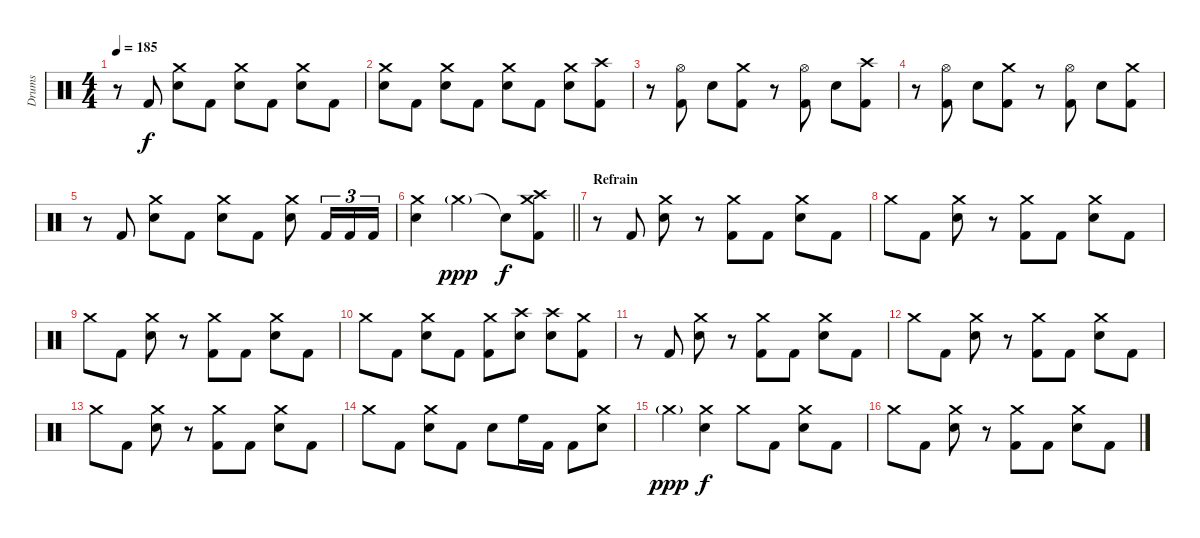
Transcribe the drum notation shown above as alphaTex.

\track ("Drums" "Drums") {instrument percussion}
\staff {score}
\articulation defaults
\ts (4 4)
\tempo 185
\clef neutral
\ks c
r.8{dy f} "Kick (hit) 2".8 ("Crash medium (hit)" "Electric Snare (hit)").8 "Kick (hit) 2".8 ("Crash medium (hit)" "Electric Snare (hit)").8 "Kick (hit) 2".8 ("Crash medium (hit)" "Electric Snare (hit)").8 "Kick (hit) 2".8 |
("Crash medium (hit)" "Electric Snare (hit)").8 "Kick (hit) 2".8 ("Crash medium (hit)" "Electric Snare (hit)").8 "Kick (hit) 2".8 ("Crash medium (hit)" "Electric Snare (hit)").8 "Kick (hit) 2".8 ("Crash medium (hit)" "Electric Snare (hit)").8 ("Crash high (hit)" "Kick (hit) 2").8 |
r.8 ("Hi-Hat (open)" "Kick (hit) 2").8 "Electric Snare (hit)".8 ("Crash medium (hit)" "Kick (hit) 2").8 r.8 ("Hi-Hat (open)" "Kick (hit) 2").8 "Electric Snare (hit)".8 ("Crash high (hit)" "Kick (hit) 2").8 |
r.8 ("Hi-Hat (open)" "Kick (hit) 2").8 "Electric Snare (hit)".8 ("Crash medium (hit)" "Kick (hit) 2").8 r.8 ("Hi-Hat (open)" "Kick (hit) 2").8 "Electric Snare (hit)".8 ("Crash medium (hit)" "Kick (hit) 2").8 |
r.8 "Kick (hit) 2".8 ("Crash medium (hit)" "Electric Snare (hit)").8 "Kick (hit) 2".8 ("Crash medium (hit)" "Electric Snare (hit)").8 "Kick (hit) 2".8 ("Crash medium (hit)" "Electric Snare (hit)").8 "Kick (hit) 2".16{tu (3 2)} "Kick (hit) 2".16{tu (3 2)} "Kick (hit) 2".16{tu (3 2)} |
\barLineRight lightlight
("Crash medium (hit)" "Electric Snare (hit)").4 "Crash medium (hit)"{g}.2{dy ppp} "Snare (hit)"{t}.8{dy f} ("Crash medium (hit)" "Crash high (hit)" "Kick (hit) 2").8 |
\section ("" "Refrain")
r.8 "Kick (hit) 2".8 ("Crash medium (hit)" "Electric Snare (hit)").8 r.8 ("Crash medium (hit)" "Kick (hit) 2").8 "Kick (hit) 2".8 ("Crash medium (hit)" "Electric Snare (hit)").8 "Kick (hit) 2".8 |
"Crash medium (hit)".8 "Kick (hit) 2".8 ("Crash medium (hit)" "Electric Snare (hit)").8 r.8 ("Crash medium (hit)" "Kick (hit) 2").8 "Kick (hit) 2".8 ("Crash medium (hit)" "Electric Snare (hit)").8 "Kick (hit) 2".8 |
"Crash medium (hit)".8 "Kick (hit) 2".8 ("Crash medium (hit)" "Electric Snare (hit)").8 r.8 ("Crash medium (hit)" "Kick (hit) 2").8 "Kick (hit) 2".8 ("Crash medium (hit)" "Electric Snare (hit)").8 "Kick (hit) 2".8 |
"Crash medium (hit)".8 "Kick (hit) 2".8 ("Crash medium (hit)" "Electric Snare (hit)").8 "Kick (hit) 2".8 ("Crash medium (hit)" "Kick (hit) 2").8 ("Crash high (hit)" "Electric Snare (hit)").8 ("Crash high (hit)" "Electric Snare (hit)").8 ("Crash medium (hit)" "Kick (hit) 2").8 |
r.8 "Kick (hit) 2".8 ("Crash medium (hit)" "Electric Snare (hit)").8 r.8 ("Crash medium (hit)" "Kick (hit) 2").8 "Kick (hit) 2".8 ("Crash medium (hit)" "Electric Snare (hit)").8 "Kick (hit) 2".8 |
"Crash medium (hit)".8 "Kick (hit) 2".8 ("Crash medium (hit)" "Electric Snare (hit)").8 r.8 ("Crash medium (hit)" "Kick (hit) 2").8 "Kick (hit) 2".8 ("Crash medium (hit)" "Electric Snare (hit)").8 "Kick (hit) 2".8 |
"Crash medium (hit)".8 "Kick (hit) 2".8 ("Crash medium (hit)" "Electric Snare (hit)").8 r.8 ("Crash medium (hit)" "Kick (hit) 2").8 "Kick (hit) 2".8 ("Crash medium (hit)" "Electric Snare (hit)").8 "Kick (hit) 2".8 |
"Crash medium (hit)".8 "Kick (hit) 2".8 ("Crash medium (hit)" "Electric Snare (hit)").8 "Kick (hit) 2".8 "Electric Snare (hit)".8 "High Floor Tom (hit)".16 "Kick (hit) 2".16 "Kick (hit) 2".8 ("Crash medium (hit)" "Electric Snare (hit)").8 |
"Crash medium (hit)"{g}.4{dy ppp} ("Crash medium (hit)" "Electric Snare (hit)").4{dy f} "Crash medium (hit)".8 "Kick (hit) 2".8 ("Crash medium (hit)" "Electric Snare (hit)").8 "Kick (hit) 2".8 |
"Crash medium (hit)".8 "Kick (hit) 2".8 ("Crash medium (hit)" "Electric Snare (hit)").8 r.8 ("Crash medium (hit)" "Kick (hit) 2").8 "Kick (hit) 2".8 ("Crash medium (hit)" "Electric Snare (hit)").8 "Kick (hit) 2".8
